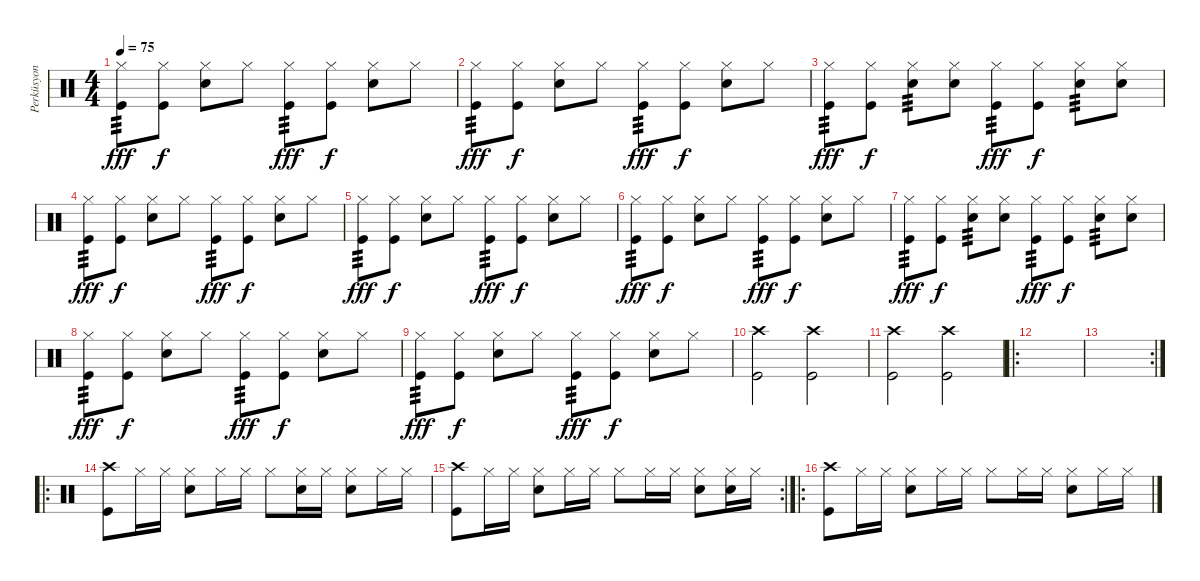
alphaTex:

\track ("Perküsyon" "Perküsyon") {instrument percussion}
\staff {score}
\articulation defaults
\ts (4 4)
\tempo 75
\clef neutral
\ks c
("Kick (hit)" "Hi-Hat (closed)").8{tp 3 dy fff} ("Kick (hit)" "Hi-Hat (closed)").8{dy f} ("Snare (hit) 2" "Hi-Hat (closed)").8 "Hi-Hat (closed)".8 ("Kick (hit)" "Hi-Hat (closed)").8{tp 3 dy fff} ("Kick (hit)" "Hi-Hat (closed)").8{dy f} ("Snare (hit) 2" "Hi-Hat (closed)").8 "Hi-Hat (closed)".8 |
("Kick (hit)" "Hi-Hat (closed)").8{tp 3 dy fff} ("Kick (hit)" "Hi-Hat (closed)").8{dy f} ("Snare (hit) 2" "Hi-Hat (closed)").8 "Hi-Hat (closed)".8 ("Kick (hit)" "Hi-Hat (closed)").8{tp 3 dy fff} ("Kick (hit)" "Hi-Hat (closed)").8{dy f} ("Snare (hit) 2" "Hi-Hat (closed)").8 "Hi-Hat (closed)".8 |
("Kick (hit)" "Hi-Hat (closed)").8{tp 3 dy fff} ("Kick (hit)" "Hi-Hat (closed)").8{dy f} ("Snare (hit) 2" "Hi-Hat (closed)").8{tp 3} ("Snare (hit) 2" "Hi-Hat (closed)").8 ("Kick (hit)" "Hi-Hat (closed)").8{tp 3 dy fff} ("Kick (hit)" "Hi-Hat (closed)").8{dy f} ("Snare (hit) 2" "Hi-Hat (closed)").8{tp 3} ("Snare (hit) 2" "Hi-Hat (closed)").8 |
("Kick (hit)" "Hi-Hat (closed)").8{tp 3 dy fff} ("Kick (hit)" "Hi-Hat (closed)").8{dy f} ("Snare (hit) 2" "Hi-Hat (closed)").8 "Hi-Hat (closed)".8 ("Kick (hit)" "Hi-Hat (closed)").8{tp 3 dy fff} ("Kick (hit)" "Hi-Hat (closed)").8{dy f} ("Snare (hit) 2" "Hi-Hat (closed)").8 "Hi-Hat (closed)".8 |
("Kick (hit)" "Hi-Hat (closed)").8{tp 3 dy fff} ("Kick (hit)" "Hi-Hat (closed)").8{dy f} ("Snare (hit) 2" "Hi-Hat (closed)").8 "Hi-Hat (closed)".8 ("Kick (hit)" "Hi-Hat (closed)").8{tp 3 dy fff} ("Kick (hit)" "Hi-Hat (closed)").8{dy f} ("Snare (hit) 2" "Hi-Hat (closed)").8 "Hi-Hat (closed)".8 |
("Kick (hit)" "Hi-Hat (closed)").8{tp 3 dy fff} ("Kick (hit)" "Hi-Hat (closed)").8{dy f} ("Snare (hit) 2" "Hi-Hat (closed)").8 "Hi-Hat (closed)".8 ("Kick (hit)" "Hi-Hat (closed)").8{tp 3 dy fff} ("Kick (hit)" "Hi-Hat (closed)").8{dy f} ("Snare (hit) 2" "Hi-Hat (closed)").8 "Hi-Hat (closed)".8 |
("Kick (hit)" "Hi-Hat (closed)").8{tp 3 dy fff} ("Kick (hit)" "Hi-Hat (closed)").8{dy f} ("Snare (hit) 2" "Hi-Hat (closed)").8{tp 3} ("Snare (hit) 2" "Hi-Hat (closed)").8 ("Kick (hit)" "Hi-Hat (closed)").8{tp 3 dy fff} ("Kick (hit)" "Hi-Hat (closed)").8{dy f} ("Snare (hit) 2" "Hi-Hat (closed)").8{tp 3} ("Snare (hit) 2" "Hi-Hat (closed)").8 |
("Kick (hit)" "Hi-Hat (closed)").8{tp 3 dy fff} ("Kick (hit)" "Hi-Hat (closed)").8{dy f} ("Snare (hit) 2" "Hi-Hat (closed)").8 "Hi-Hat (closed)".8 ("Kick (hit)" "Hi-Hat (closed)").8{tp 3 dy fff} ("Kick (hit)" "Hi-Hat (closed)").8{dy f} ("Snare (hit) 2" "Hi-Hat (closed)").8 "Hi-Hat (closed)".8 |
("Kick (hit)" "Hi-Hat (closed)").8{tp 3 dy fff} ("Kick (hit)" "Hi-Hat (closed)").8{dy f} ("Snare (hit) 2" "Hi-Hat (closed)").8 "Hi-Hat (closed)".8 ("Kick (hit)" "Hi-Hat (closed)").8{tp 3 dy fff} ("Kick (hit)" "Hi-Hat (closed)").8{dy f} ("Snare (hit) 2" "Hi-Hat (closed)").8 "Hi-Hat (closed)".8 |
("Kick (hit)" "Crash high (hit)").2 ("Crash high (hit)" "Kick (hit)").2 |
("Crash high (hit)" "Kick (hit)").2 ("Crash high (hit)" "Kick (hit)").2 |
\ro
|
\rc 2
|
\ro
("Kick (hit)" "Crash high (hit)").8 "Hi-Hat (closed)".16 "Hi-Hat (closed)".16 ("Snare (hit) 2" "Hi-Hat (closed)").8 "Hi-Hat (closed)".16 "Hi-Hat (closed)".16 "Hi-Hat (closed)".8 ("Snare (hit) 2" "Hi-Hat (closed)").16 "Hi-Hat (closed)".16 ("Snare (hit) 2" "Hi-Hat (closed)").8 "Hi-Hat (closed)".16 "Hi-Hat (closed)".16 |
\rc 2
("Kick (hit)" "Crash high (hit)").8 "Hi-Hat (closed)".16 "Hi-Hat (closed)".16 ("Snare (hit) 2" "Hi-Hat (closed)").8 "Hi-Hat (closed)".16 "Hi-Hat (closed)".16 "Hi-Hat (closed)".8 "Hi-Hat (closed)".16 "Hi-Hat (closed)".16 ("Snare (hit) 2" "Hi-Hat (closed)").8 ("Snare (hit) 2" "Hi-Hat (closed)").16 "Hi-Hat (closed)".16 |
\ro
("Kick (hit)" "Crash high (hit)").8 "Hi-Hat (closed)".16 "Hi-Hat (closed)".16 ("Snare (hit) 2" "Hi-Hat (closed)").8 "Hi-Hat (closed)".16 "Hi-Hat (closed)".16 "Hi-Hat (closed)".8 "Hi-Hat (closed)".16 "Hi-Hat (closed)".16 ("Snare (hit) 2" "Hi-Hat (closed)").8 "Hi-Hat (closed)".16 "Hi-Hat (closed)".16
